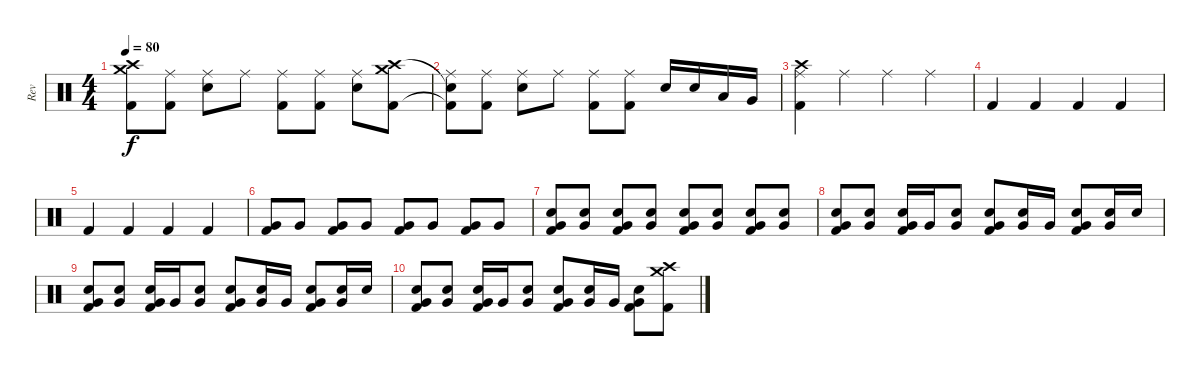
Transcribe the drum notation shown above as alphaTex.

\track ("Rev" "Rev") {instrument percussion}
\staff {score}
\articulation defaults
\ts (4 4)
\tempo 80
\clef neutral
\ks c
("Crash high (hit)" "Crash medium (hit)" "Kick (hit) 2").8{dy f} ("Ride (middle)" "Kick (hit) 2").8 ("Ride (middle)" "Electric Snare (hit)").8 "Ride (middle)".8 ("Ride (middle)" "Kick (hit) 2").8 ("Ride (middle)" "Kick (hit) 2").8 ("Ride (middle)" "Electric Snare (hit)").8 ("Crash high (hit)" "Crash medium (hit)" "Kick (hit) 2").8 |
("Snare (hit)"{t} "Ride (middle)" "Kick (hit) 2"{t}).8 ("Ride (middle)" "Kick (hit) 2").8 ("Ride (middle)" "Electric Snare (hit)").8 "Ride (middle)".8 ("Ride (middle)" "Kick (hit) 2").8 ("Ride (middle)" "Kick (hit) 2").8 "Electric Snare (hit)".16 "Electric Snare (hit)".16 "Low Tom (hit)".16 "Very Low Tom (hit)".16 |
("Ride (middle)" "Crash high (hit)" "Kick (hit) 2").4 "Ride (middle)".4 "Ride (middle)".4 "Ride (middle)".4 |
"Kick (hit) 2".4 "Kick (hit) 2".4 "Kick (hit) 2".4 "Kick (hit) 2".4 |
"Kick (hit) 2".4 "Kick (hit) 2".4 "Kick (hit) 2".4 "Kick (hit) 2".4 |
("Very Low Tom (hit)" "Kick (hit) 2").8 "Very Low Tom (hit)".8 ("Very Low Tom (hit)" "Kick (hit) 2").8 "Very Low Tom (hit)".8 ("Very Low Tom (hit)" "Kick (hit) 2").8 "Very Low Tom (hit)".8 ("Very Low Tom (hit)" "Kick (hit) 2").8 "Very Low Tom (hit)".8 |
("Electric Snare (hit)" "Very Low Tom (hit)" "Kick (hit) 2").8 ("Electric Snare (hit)" "Very Low Tom (hit)").8 ("Electric Snare (hit)" "Very Low Tom (hit)" "Kick (hit) 2").8 ("Electric Snare (hit)" "Very Low Tom (hit)").8 ("Electric Snare (hit)" "Very Low Tom (hit)" "Kick (hit) 2").8 ("Electric Snare (hit)" "Very Low Tom (hit)").8 ("Electric Snare (hit)" "Very Low Tom (hit)" "Kick (hit) 2").8 ("Electric Snare (hit)" "Very Low Tom (hit)").8 |
("Electric Snare (hit)" "Very Low Tom (hit)" "Kick (hit) 2").8 ("Electric Snare (hit)" "Very Low Tom (hit)").8 ("Electric Snare (hit)" "Very Low Tom (hit)" "Kick (hit) 2").16 "Very Low Tom (hit)".16 ("Electric Snare (hit)" "Very Low Tom (hit)").8 ("Electric Snare (hit)" "Very Low Tom (hit)" "Kick (hit) 2").8 ("Electric Snare (hit)" "Very Low Tom (hit)").16 "Very Low Tom (hit)".16 ("Electric Snare (hit)" "Very Low Tom (hit)" "Kick (hit) 2").8 ("Electric Snare (hit)" "Very Low Tom (hit)").16 "Electric Snare (hit)".16 |
("Electric Snare (hit)" "Very Low Tom (hit)" "Kick (hit) 2").8 ("Electric Snare (hit)" "Very Low Tom (hit)").8 ("Electric Snare (hit)" "Very Low Tom (hit)" "Kick (hit) 2").16 "Very Low Tom (hit)".16 ("Electric Snare (hit)" "Very Low Tom (hit)").8 ("Electric Snare (hit)" "Very Low Tom (hit)" "Kick (hit) 2").8 ("Electric Snare (hit)" "Very Low Tom (hit)").16 "Very Low Tom (hit)".16 ("Electric Snare (hit)" "Very Low Tom (hit)" "Kick (hit) 2").8 ("Electric Snare (hit)" "Very Low Tom (hit)").16 "Electric Snare (hit)".16 |
("Electric Snare (hit)" "Very Low Tom (hit)" "Kick (hit) 2").8 ("Electric Snare (hit)" "Very Low Tom (hit)").8 ("Electric Snare (hit)" "Very Low Tom (hit)" "Kick (hit) 2").16 "Very Low Tom (hit)".16 ("Electric Snare (hit)" "Very Low Tom (hit)").8 ("Electric Snare (hit)" "Very Low Tom (hit)" "Kick (hit) 2").8 ("Electric Snare (hit)" "Very Low Tom (hit)").16 "Very Low Tom (hit)".16 ("Electric Snare (hit)" "Very Low Tom (hit)" "Kick (hit) 2").8 ("Crash high (hit)" "Crash medium (hit)" "Kick (hit) 2").8
